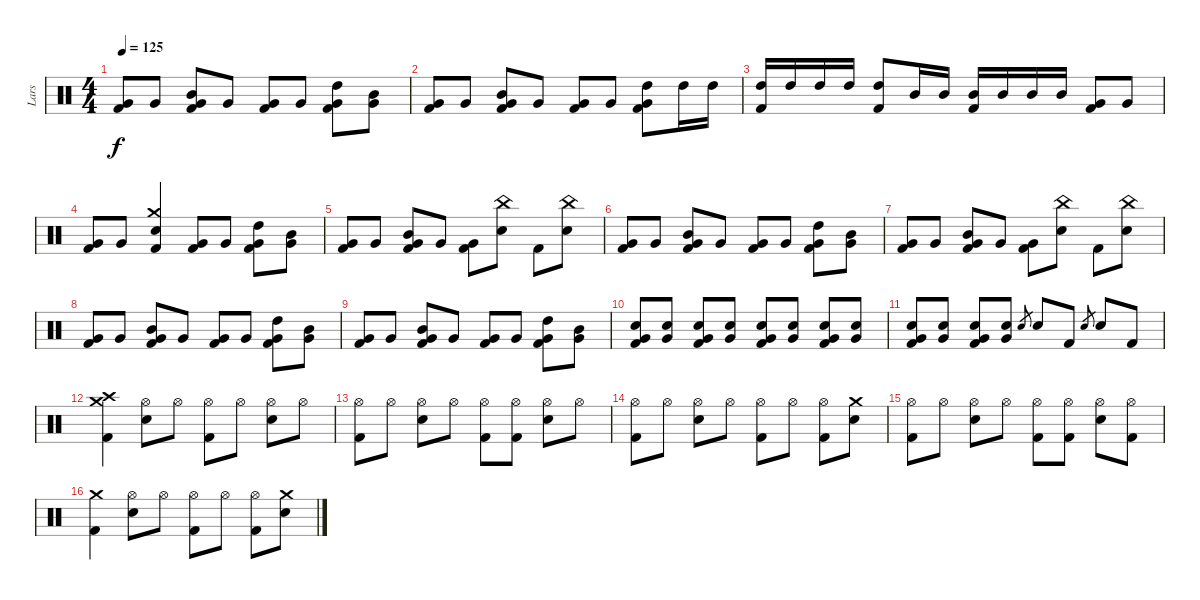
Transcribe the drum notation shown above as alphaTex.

\track ("Lars" "Lars") {instrument percussion}
\staff {score}
\articulation defaults
\ts (4 4)
\tempo 125
\clef neutral
\ks c
("Very Low Tom (hit)" "Kick (hit) 2").8{dy f} "Very Low Tom (hit)".8 ("Mid Tom (hit)" "Very Low Tom (hit)" "Kick (hit) 2").8 "Very Low Tom (hit)".8 ("Very Low Tom (hit)" "Kick (hit) 2").8 "Very Low Tom (hit)".8 ("High Tom (hit)" "Very Low Tom (hit)" "Kick (hit) 2").8 ("Mid Tom (hit)" "Very Low Tom (hit)").8 |
("Very Low Tom (hit)" "Kick (hit) 2").8 "Very Low Tom (hit)".8 ("Mid Tom (hit)" "Very Low Tom (hit)" "Kick (hit) 2").8 "Very Low Tom (hit)".8 ("Very Low Tom (hit)" "Kick (hit) 2").8 "Very Low Tom (hit)".8 ("High Tom (hit)" "Very Low Tom (hit)" "Kick (hit) 2").8 "High Tom (hit)".16 "High Tom (hit)".16 |
("High Tom (hit)" "Kick (hit) 2").16 "High Tom (hit)".16 "High Tom (hit)".16 "High Tom (hit)".16 ("High Tom (hit)" "Kick (hit) 2").8 "Mid Tom (hit)".16 "Mid Tom (hit)".16 ("Mid Tom (hit)" "Kick (hit) 2").16 "Mid Tom (hit)".16 "Mid Tom (hit)".16 "Mid Tom (hit)".16 ("Very Low Tom (hit)" "Kick (hit) 2").8 "Very Low Tom (hit)".8 |
("Very Low Tom (hit)" "Kick (hit) 2").8 "Very Low Tom (hit)".8 ("Crash medium (hit)" "Snare (hit) 2" "Kick (hit) 2").4 ("Very Low Tom (hit)" "Kick (hit) 2").8 "Very Low Tom (hit)".8 ("High Tom (hit)" "Very Low Tom (hit)" "Kick (hit) 2").8 ("Very Low Tom (hit)" "Mid Tom (hit)").8 |
("Very Low Tom (hit)" "Kick (hit) 2").8 "Very Low Tom (hit)".8 ("Very Low Tom (hit)" "Kick (hit) 2" "Mid Tom (hit)").8 "Very Low Tom (hit)".8 ("Very Low Tom (hit)" "Kick (hit) 2").8 ("Snare (hit) 2" "China (hit)").8 "Kick (hit) 2".8 ("China (hit)" "Snare (hit) 2").8 |
("Very Low Tom (hit)" "Kick (hit) 2").8 "Very Low Tom (hit)".8 ("Mid Tom (hit)" "Very Low Tom (hit)" "Kick (hit) 2").8 "Very Low Tom (hit)".8 ("Very Low Tom (hit)" "Kick (hit) 2").8 "Very Low Tom (hit)".8 ("High Tom (hit)" "Very Low Tom (hit)" "Kick (hit) 2").8 ("Mid Tom (hit)" "Very Low Tom (hit)").8 |
("Very Low Tom (hit)" "Kick (hit) 2").8 "Very Low Tom (hit)".8 ("Mid Tom (hit)" "Very Low Tom (hit)" "Kick (hit) 2").8 "Very Low Tom (hit)".8 ("Very Low Tom (hit)" "Kick (hit) 2").8 ("Snare (hit) 2" "China (hit)").8 "Kick (hit) 2".8 ("Snare (hit) 2" "China (hit)").8 |
("Very Low Tom (hit)" "Kick (hit) 2").8 "Very Low Tom (hit)".8 ("Mid Tom (hit)" "Very Low Tom (hit)" "Kick (hit) 2").8 "Very Low Tom (hit)".8 ("Very Low Tom (hit)" "Kick (hit) 2").8 "Very Low Tom (hit)".8 ("High Tom (hit)" "Very Low Tom (hit)" "Kick (hit) 2").8 ("Mid Tom (hit)" "Very Low Tom (hit)").8 |
("Very Low Tom (hit)" "Kick (hit) 2").8 "Very Low Tom (hit)".8 ("Mid Tom (hit)" "Very Low Tom (hit)" "Kick (hit) 2").8 "Very Low Tom (hit)".8 ("Very Low Tom (hit)" "Kick (hit) 2").8 "Very Low Tom (hit)".8 ("High Tom (hit)" "Very Low Tom (hit)" "Kick (hit) 2").8 ("Mid Tom (hit)" "Very Low Tom (hit)").8 |
("Very Low Tom (hit)" "Snare (hit) 2" "Kick (hit) 2").8 ("Very Low Tom (hit)" "Snare (hit) 2").8 ("Very Low Tom (hit)" "Snare (hit) 2" "Kick (hit) 2").8 ("Very Low Tom (hit)" "Snare (hit) 2").8 ("Very Low Tom (hit)" "Snare (hit) 2" "Kick (hit) 2").8 ("Very Low Tom (hit)" "Snare (hit) 2").8 ("Very Low Tom (hit)" "Snare (hit) 2" "Kick (hit) 2").8 ("Very Low Tom (hit)" "Snare (hit) 2").8 |
("Snare (hit) 2" "Very Low Tom (hit)" "Kick (hit) 2").8 ("Snare (hit) 2" "Very Low Tom (hit)").8 ("Snare (hit) 2" "Very Low Tom (hit)" "Kick (hit) 2").8 ("Snare (hit) 2" "Very Low Tom (hit)").8 "Snare (hit) 2".8{gr} "Snare (hit) 2".8 "Kick (hit) 2".8 "Snare (hit) 2".8{gr} "Snare (hit) 2".8 "Kick (hit) 2".8 |
("Kick (hit) 2" "Crash medium (hit)" "Crash high (hit)").4 ("Snare (hit) 2" "Hi-Hat (open)").8 "Hi-Hat (open)".8 ("Hi-Hat (open)" "Kick (hit) 2").8 "Hi-Hat (open)".8 ("Snare (hit) 2" "Hi-Hat (open)").8 "Hi-Hat (open)".8 |
("Hi-Hat (open)" "Kick (hit) 2").8 "Hi-Hat (open)".8 ("Snare (hit) 2" "Hi-Hat (open)").8 "Hi-Hat (open)".8 ("Kick (hit) 2" "Hi-Hat (open)").8 ("Kick (hit) 2" "Hi-Hat (open)").8 ("Snare (hit) 2" "Hi-Hat (open)").8 "Hi-Hat (open)".8 |
("Hi-Hat (open)" "Kick (hit) 2").8 "Hi-Hat (open)".8 ("Snare (hit) 2" "Hi-Hat (open)").8 "Hi-Hat (open)".8 ("Hi-Hat (open)" "Kick (hit) 2").8 "Hi-Hat (open)".8 ("Hi-Hat (open)" "Kick (hit) 2").8 ("Crash medium (hit)" "Snare (hit) 2").8 |
("Hi-Hat (open)" "Kick (hit) 2").8 "Hi-Hat (open)".8 ("Snare (hit) 2" "Hi-Hat (open)").8 "Hi-Hat (open)".8 ("Kick (hit) 2" "Hi-Hat (open)").8 ("Kick (hit) 2" "Hi-Hat (open)").8 ("Snare (hit) 2" "Hi-Hat (open)").8 ("Kick (hit) 2" "Hi-Hat (open)").8 |
("Kick (hit) 2" "Crash medium (hit)").4 ("Hi-Hat (open)" "Snare (hit) 2").8 "Hi-Hat (open)".8 ("Kick (hit) 2" "Hi-Hat (open)").8 "Hi-Hat (open)".8 ("Kick (hit) 2" "Hi-Hat (open)").8 ("Crash medium (hit)" "Snare (hit) 2").8
